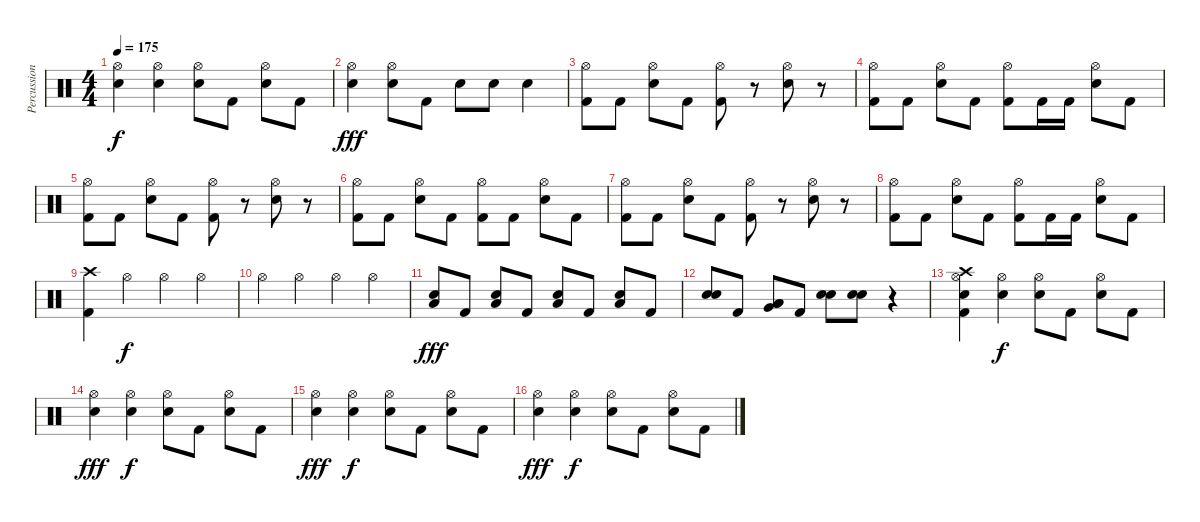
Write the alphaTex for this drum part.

\track ("Percussion" "Percussion") {instrument percussion}
\staff {score}
\articulation defaults
\ts (4 4)
\tempo 175
\clef neutral
\ks c
("Hi-Hat (open)" "Snare (hit) 2").4{dy f} ("Hi-Hat (open)" "Snare (hit) 2").4 ("Hi-Hat (open)" "Snare (hit) 2").8 "Kick (hit) 2".8 ("Hi-Hat (open)" "Snare (hit) 2").8 "Kick (hit) 2".8 |
("Hi-Hat (open)" "Snare (hit) 2").4{dy fff} ("Hi-Hat (open)" "Snare (hit) 2").8 "Kick (hit) 2".8 "Snare (hit) 2".8 "Snare (hit) 2".8 "Snare (hit) 2".4 |
("Hi-Hat (open)" "Kick (hit) 2").8 "Kick (hit) 2".8 ("Hi-Hat (open)" "Snare (hit) 2").8 "Kick (hit) 2".8 ("Hi-Hat (open)" "Kick (hit) 2").8 r.8 ("Hi-Hat (open)" "Snare (hit) 2").8 r.8 |
("Hi-Hat (open)" "Kick (hit) 2").8 "Kick (hit) 2".8 ("Hi-Hat (open)" "Snare (hit) 2").8 "Kick (hit) 2".8 ("Hi-Hat (open)" "Kick (hit) 2").8 "Kick (hit) 2".16 "Kick (hit) 2".16 ("Hi-Hat (open)" "Snare (hit) 2").8 "Kick (hit) 2".8 |
("Hi-Hat (open)" "Kick (hit) 2").8 "Kick (hit) 2".8 ("Hi-Hat (open)" "Snare (hit) 2").8 "Kick (hit) 2".8 ("Hi-Hat (open)" "Kick (hit) 2").8 r.8 ("Hi-Hat (open)" "Snare (hit) 2").8 r.8 |
("Hi-Hat (open)" "Kick (hit) 2").8 "Kick (hit) 2".8 ("Hi-Hat (open)" "Snare (hit) 2").8 "Kick (hit) 2".8 ("Hi-Hat (open)" "Kick (hit) 2").8 "Kick (hit) 2".8 ("Hi-Hat (open)" "Snare (hit) 2").8 "Kick (hit) 2".8 |
("Hi-Hat (open)" "Kick (hit) 2").8 "Kick (hit) 2".8 ("Hi-Hat (open)" "Snare (hit) 2").8 "Kick (hit) 2".8 ("Hi-Hat (open)" "Kick (hit) 2").8 r.8 ("Hi-Hat (open)" "Snare (hit) 2").8 r.8 |
("Hi-Hat (open)" "Kick (hit) 2").8 "Kick (hit) 2".8 ("Hi-Hat (open)" "Snare (hit) 2").8 "Kick (hit) 2".8 ("Hi-Hat (open)" "Kick (hit) 2").8 "Kick (hit) 2".16 "Kick (hit) 2".16 ("Hi-Hat (open)" "Snare (hit) 2").8 "Kick (hit) 2".8 |
("Crash high (hit)" "Kick (hit) 2").4 "Hi-Hat (open)".4{dy f} "Hi-Hat (open)".4 "Hi-Hat (open)".4 |
"Hi-Hat (open)".4 "Hi-Hat (open)".4 "Hi-Hat (open)".4 "Hi-Hat (open)".4 |
("Low Floor Tom (hit)" "Snare (hit) 2").8{dy fff} "Kick (hit) 2".8 ("Low Floor Tom (hit)" "Snare (hit) 2").8 "Kick (hit) 2".8 ("Low Floor Tom (hit)" "Snare (hit) 2").8 "Kick (hit) 2".8 ("Low Floor Tom (hit)" "Snare (hit) 2").8 "Kick (hit) 2".8 |
("Electric Snare (hit)" "Snare (hit) 2").8 "Kick (hit) 2".8 ("Low Tom (hit)" "Low Floor Tom (hit)" "Very Low Tom (hit)").8 "Kick (hit) 2".8 ("Electric Snare (hit)" "Snare (hit) 2").8 ("Electric Snare (hit)" "Snare (hit) 2").8 r.4 |
("Hi-Hat (open)" "Crash high (hit)" "Snare (hit) 2" "Kick (hit) 2").4 ("Hi-Hat (open)" "Snare (hit) 2").4{dy f} ("Hi-Hat (open)" "Snare (hit) 2").8 "Kick (hit) 2".8 ("Hi-Hat (open)" "Snare (hit) 2").8 "Kick (hit) 2".8 |
("Hi-Hat (open)" "Snare (hit) 2").4{dy fff} ("Hi-Hat (open)" "Snare (hit) 2").4{dy f} ("Hi-Hat (open)" "Snare (hit) 2").8 "Kick (hit) 2".8 ("Hi-Hat (open)" "Snare (hit) 2").8 "Kick (hit) 2".8 |
("Hi-Hat (open)" "Snare (hit) 2").4{dy fff} ("Hi-Hat (open)" "Snare (hit) 2").4{dy f} ("Hi-Hat (open)" "Snare (hit) 2").8 "Kick (hit) 2".8 ("Hi-Hat (open)" "Snare (hit) 2").8 "Kick (hit) 2".8 |
("Hi-Hat (open)" "Snare (hit) 2").4{dy fff} ("Hi-Hat (open)" "Snare (hit) 2").4{dy f} ("Hi-Hat (open)" "Snare (hit) 2").8 "Kick (hit) 2".8 ("Hi-Hat (open)" "Snare (hit) 2").8 "Kick (hit) 2".8
